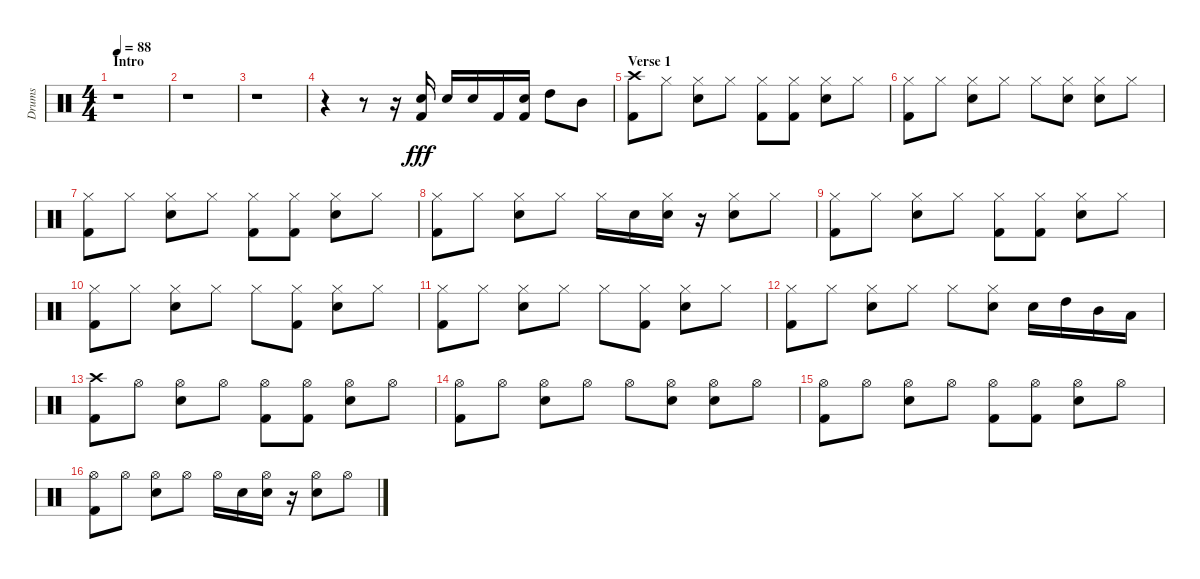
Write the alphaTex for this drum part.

\track ("Drums" "Drums") {instrument percussion}
\staff {score}
\articulation defaults
\ts (4 4)
\section ("" "Intro")
\tempo 88
\clef neutral
\ks c
r.1{dy fff} |
r.1 |
r.1 |
r.4 r.8 r.16 ("Electric Snare (hit)" "Kick (hit) 2").16 "Electric Snare (hit)".16 "Electric Snare (hit)".16 "Kick (hit) 2".16 ("Electric Snare (hit)" "Kick (hit) 2").16 "High Tom (hit)".8 "Mid Tom (hit)".8 |
\section ("" "Verse 1")
("Crash high (hit)" "Kick (hit) 2").8 "Hi-Hat (closed)".8 ("Hi-Hat (closed)" "Electric Snare (hit)").8 "Hi-Hat (closed)".8 ("Hi-Hat (closed)" "Kick (hit) 2").8 ("Hi-Hat (closed)" "Kick (hit) 2").8 ("Hi-Hat (closed)" "Electric Snare (hit)").8 "Hi-Hat (closed)".8 |
("Hi-Hat (closed)" "Kick (hit) 2").8 "Hi-Hat (closed)".8 ("Hi-Hat (closed)" "Electric Snare (hit)").8 "Hi-Hat (closed)".8 "Hi-Hat (closed)".8 ("Hi-Hat (closed)" "Electric Snare (hit)").8 ("Hi-Hat (closed)" "Electric Snare (hit)").8 "Hi-Hat (closed)".8 |
("Hi-Hat (closed)" "Kick (hit) 2").8 "Hi-Hat (closed)".8 ("Hi-Hat (closed)" "Electric Snare (hit)").8 "Hi-Hat (closed)".8 ("Hi-Hat (closed)" "Kick (hit) 2").8 ("Hi-Hat (closed)" "Kick (hit) 2").8 ("Hi-Hat (closed)" "Electric Snare (hit)").8 "Hi-Hat (closed)".8 |
("Hi-Hat (closed)" "Kick (hit) 2").8 "Hi-Hat (closed)".8 ("Hi-Hat (closed)" "Electric Snare (hit)").8 "Hi-Hat (closed)".8 "Hi-Hat (closed)".16 "Electric Snare (hit)".16 ("Hi-Hat (closed)" "Electric Snare (hit)").16 r.16 ("Hi-Hat (closed)" "Electric Snare (hit)").8 "Hi-Hat (closed)".8 |
("Hi-Hat (closed)" "Kick (hit) 2").8 "Hi-Hat (closed)".8 ("Hi-Hat (closed)" "Electric Snare (hit)").8 "Hi-Hat (closed)".8 ("Hi-Hat (closed)" "Kick (hit) 2").8 ("Hi-Hat (closed)" "Kick (hit) 2").8 ("Hi-Hat (closed)" "Electric Snare (hit)").8 "Hi-Hat (closed)".8 |
("Hi-Hat (closed)" "Kick (hit) 2").8 "Hi-Hat (closed)".8 ("Hi-Hat (closed)" "Electric Snare (hit)").8 "Hi-Hat (closed)".8 "Hi-Hat (closed)".8 ("Hi-Hat (closed)" "Kick (hit) 2").8 ("Hi-Hat (closed)" "Electric Snare (hit)").8 "Hi-Hat (closed)".8 |
("Hi-Hat (closed)" "Kick (hit) 2").8 "Hi-Hat (closed)".8 ("Hi-Hat (closed)" "Electric Snare (hit)").8 "Hi-Hat (closed)".8 "Hi-Hat (closed)".8 ("Hi-Hat (closed)" "Kick (hit) 2").8 ("Hi-Hat (closed)" "Electric Snare (hit)").8 "Hi-Hat (closed)".8 |
("Hi-Hat (closed)" "Kick (hit) 2").8 "Hi-Hat (closed)".8 ("Hi-Hat (closed)" "Electric Snare (hit)").8 "Hi-Hat (closed)".8 "Hi-Hat (closed)".8 ("Hi-Hat (closed)" "Electric Snare (hit)").8 "Electric Snare (hit)".16 "High Tom (hit)".16 "Mid Tom (hit)".16 "Low Tom (hit)".16 |
("Crash high (hit)" "Kick (hit) 2").8 "Hi-Hat (open)".8 ("Hi-Hat (open)" "Electric Snare (hit)").8 "Hi-Hat (open)".8 ("Hi-Hat (open)" "Kick (hit) 2").8 ("Hi-Hat (open)" "Kick (hit) 2").8 ("Hi-Hat (open)" "Electric Snare (hit)").8 "Hi-Hat (open)".8 |
("Hi-Hat (open)" "Kick (hit) 2").8 "Hi-Hat (open)".8 ("Hi-Hat (open)" "Electric Snare (hit)").8 "Hi-Hat (open)".8 "Hi-Hat (open)".8 ("Hi-Hat (open)" "Electric Snare (hit)").8 ("Hi-Hat (open)" "Electric Snare (hit)").8 "Hi-Hat (open)".8 |
("Hi-Hat (open)" "Kick (hit) 2").8 "Hi-Hat (open)".8 ("Hi-Hat (open)" "Electric Snare (hit)").8 "Hi-Hat (open)".8 ("Hi-Hat (open)" "Kick (hit) 2").8 ("Hi-Hat (open)" "Kick (hit) 2").8 ("Hi-Hat (open)" "Electric Snare (hit)").8 "Hi-Hat (open)".8 |
("Hi-Hat (open)" "Kick (hit) 2").8 "Hi-Hat (open)".8 ("Hi-Hat (open)" "Electric Snare (hit)").8 "Hi-Hat (open)".8 "Hi-Hat (open)".16 "Electric Snare (hit)".16 ("Hi-Hat (open)" "Electric Snare (hit)").16 r.16 ("Hi-Hat (open)" "Electric Snare (hit)").8 "Hi-Hat (open)".8
